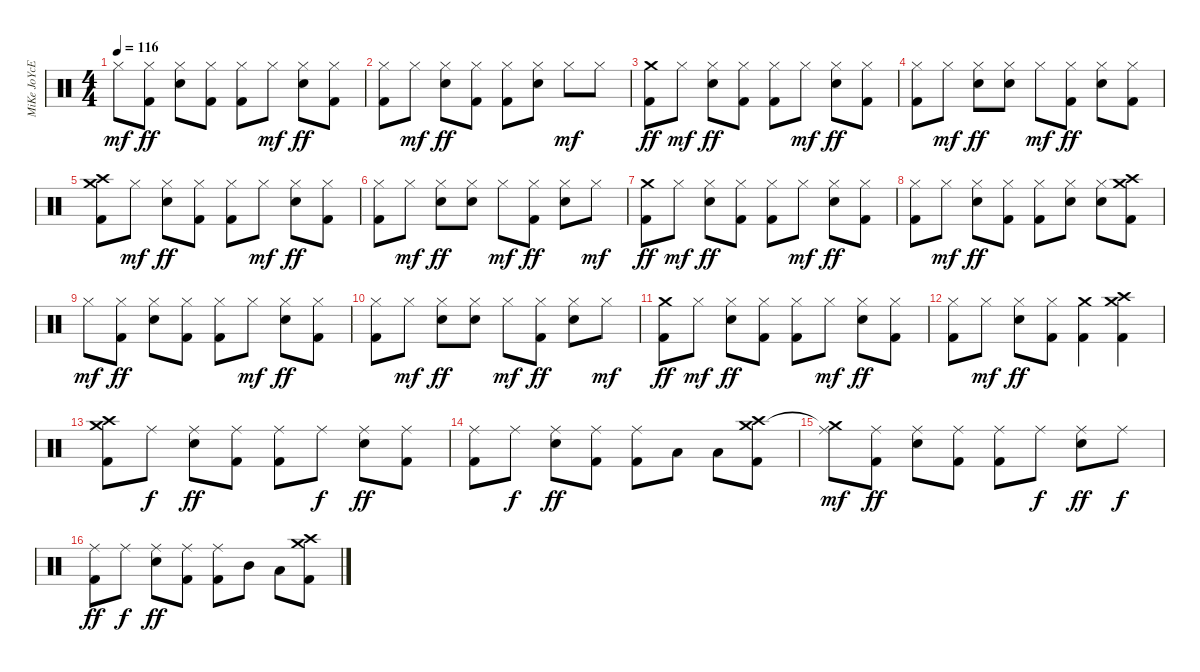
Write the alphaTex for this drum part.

\track ("MiKe JoYcE" "MiKe JoYcE") {instrument percussion}
\staff {score}
\articulation defaults
\ts (4 4)
\tempo 116
\clef neutral
\ks c "Hi-Hat (closed)".8{dy mf}
("Hi-Hat (closed)" "Kick (hit) 2").8{dy ff} ("Hi-Hat (closed)" "Electric Snare (hit)").8 ("Hi-Hat (closed)" "Kick (hit) 2").8 ("Hi-Hat (closed)" "Kick (hit) 2").8 "Hi-Hat (closed)".8{dy mf} ("Hi-Hat (closed)" "Electric Snare (hit)").8{dy ff} ("Hi-Hat (closed)" "Kick (hit) 2").8 |
("Hi-Hat (closed)" "Kick (hit) 2").8 "Hi-Hat (closed)".8{dy mf} ("Hi-Hat (closed)" "Electric Snare (hit)").8{dy ff} ("Hi-Hat (closed)" "Kick (hit) 2").8 ("Hi-Hat (closed)" "Kick (hit) 2").8 ("Hi-Hat (closed)" "Electric Snare (hit)").8 "Hi-Hat (closed)".8{dy mf} "Hi-Hat (closed)".8 |
("Crash medium (hit)" "Kick (hit) 2").8{dy ff} "Hi-Hat (closed)".8{dy mf} ("Hi-Hat (closed)" "Electric Snare (hit)").8{dy ff} ("Hi-Hat (closed)" "Kick (hit) 2").8 ("Hi-Hat (closed)" "Kick (hit) 2").8 "Hi-Hat (closed)".8{dy mf} ("Hi-Hat (closed)" "Electric Snare (hit)").8{dy ff} ("Hi-Hat (closed)" "Kick (hit) 2").8 |
("Hi-Hat (closed)" "Kick (hit) 2").8 "Hi-Hat (closed)".8{dy mf} ("Hi-Hat (closed)" "Electric Snare (hit)").8{dy ff} ("Hi-Hat (closed)" "Electric Snare (hit)").8 "Hi-Hat (closed)".8{dy mf} ("Hi-Hat (closed)" "Kick (hit) 2").8{dy ff} ("Hi-Hat (closed)" "Electric Snare (hit)").8 ("Hi-Hat (closed)" "Kick (hit) 2").8 |
("Crash high (hit)" "Crash medium (hit)" "Kick (hit) 2").8 "Hi-Hat (closed)".8{dy mf} ("Hi-Hat (closed)" "Electric Snare (hit)").8{dy ff} ("Hi-Hat (closed)" "Kick (hit) 2").8 ("Hi-Hat (closed)" "Kick (hit) 2").8 "Hi-Hat (closed)".8{dy mf} ("Hi-Hat (closed)" "Electric Snare (hit)").8{dy ff} ("Hi-Hat (closed)" "Kick (hit) 2").8 |
("Hi-Hat (closed)" "Kick (hit) 2").8 "Hi-Hat (closed)".8{dy mf} ("Hi-Hat (closed)" "Electric Snare (hit)").8{dy ff} ("Hi-Hat (closed)" "Electric Snare (hit)").8 "Hi-Hat (closed)".8{dy mf} ("Hi-Hat (closed)" "Kick (hit) 2").8{dy ff} ("Hi-Hat (closed)" "Electric Snare (hit)").8 "Hi-Hat (closed)".8{dy mf} |
("Crash medium (hit)" "Kick (hit) 2").8{dy ff} "Hi-Hat (closed)".8{dy mf} ("Hi-Hat (closed)" "Electric Snare (hit)").8{dy ff} ("Hi-Hat (closed)" "Kick (hit) 2").8 ("Hi-Hat (closed)" "Kick (hit) 2").8 "Hi-Hat (closed)".8{dy mf} ("Hi-Hat (closed)" "Electric Snare (hit)").8{dy ff} ("Hi-Hat (closed)" "Kick (hit) 2").8 |
("Hi-Hat (closed)" "Kick (hit) 2").8 "Hi-Hat (closed)".8{dy mf} ("Hi-Hat (closed)" "Electric Snare (hit)").8{dy ff} ("Hi-Hat (closed)" "Kick (hit) 2").8 ("Hi-Hat (closed)" "Kick (hit) 2").8 ("Hi-Hat (closed)" "Electric Snare (hit)").8 ("Hi-Hat (closed)" "Electric Snare (hit)").8 ("Crash high (hit)" "Crash medium (hit)" "Kick (hit) 2").8 |
"Hi-Hat (closed)".8{dy mf} ("Hi-Hat (closed)" "Kick (hit) 2").8{dy ff} ("Hi-Hat (closed)" "Electric Snare (hit)").8 ("Hi-Hat (closed)" "Kick (hit) 2").8 ("Hi-Hat (closed)" "Kick (hit) 2").8 "Hi-Hat (closed)".8{dy mf} ("Hi-Hat (closed)" "Electric Snare (hit)").8{dy ff} ("Hi-Hat (closed)" "Kick (hit) 2").8 |
("Hi-Hat (closed)" "Kick (hit) 2").8 "Hi-Hat (closed)".8{dy mf} ("Hi-Hat (closed)" "Electric Snare (hit)").8{dy ff} ("Hi-Hat (closed)" "Electric Snare (hit)").8 "Hi-Hat (closed)".8{dy mf} ("Hi-Hat (closed)" "Kick (hit) 2").8{dy ff} ("Hi-Hat (closed)" "Electric Snare (hit)").8 "Hi-Hat (closed)".8{dy mf} |
("Crash medium (hit)" "Kick (hit) 2").8{dy ff} "Hi-Hat (closed)".8{dy mf} ("Hi-Hat (closed)" "Electric Snare (hit)").8{dy ff} ("Hi-Hat (closed)" "Kick (hit) 2").8 ("Hi-Hat (closed)" "Kick (hit) 2").8 "Hi-Hat (closed)".8{dy mf} ("Hi-Hat (closed)" "Electric Snare (hit)").8{dy ff} ("Hi-Hat (closed)" "Kick (hit) 2").8 |
("Hi-Hat (closed)" "Kick (hit) 2").8 "Hi-Hat (closed)".8{dy mf} ("Hi-Hat (closed)" "Electric Snare (hit)").8{dy ff} ("Hi-Hat (closed)" "Kick (hit) 2").8 ("Crash medium (hit)" "Kick (hit) 2").4 ("Crash medium (hit)" "Crash high (hit)" "Kick (hit) 2").4 |
("Crash high (hit)" "Crash medium (hit)" "Kick (hit) 2").8 "Ride (middle)".8{dy f} ("Ride (middle)" "Electric Snare (hit)").8{dy ff} ("Ride (middle)" "Kick (hit) 2").8 ("Ride (middle)" "Kick (hit) 2").8 "Ride (middle)".8{dy f} ("Ride (middle)" "Electric Snare (hit)").8{dy ff} ("Ride (middle)" "Kick (hit) 2").8 |
("Ride (middle)" "Kick (hit) 2").8 "Ride (middle)".8{dy f} ("Ride (middle)" "Electric Snare (hit)").8{dy ff} ("Ride (middle)" "Kick (hit) 2").8 ("Ride (middle)" "Kick (hit) 2").8 "Low Tom (hit)".8 "Low Floor Tom (hit)".8 ("Crash high (hit)" "Crash medium (hit)" "Kick (hit) 2").8 |
("Ride (middle)" "Crash medium (hit)"{t}).8{dy mf} ("Ride (middle)" "Kick (hit) 2").8{dy ff} ("Ride (middle)" "Electric Snare (hit)").8 ("Ride (middle)" "Kick (hit) 2").8 ("Ride (middle)" "Kick (hit) 2").8 "Ride (middle)".8{dy f} ("Ride (middle)" "Electric Snare (hit)").8{dy ff} "Ride (middle)".8{dy f} |
("Ride (middle)" "Kick (hit) 2").8{dy ff} "Ride (middle)".8{dy f} ("Ride (middle)" "Electric Snare (hit)").8{dy ff} ("Ride (middle)" "Kick (hit) 2").8 ("Ride (middle)" "Kick (hit) 2").8 "Mid Tom (hit)".8 "Low Tom (hit)".8 ("Crash high (hit)" "Crash medium (hit)" "Kick (hit) 2").8
